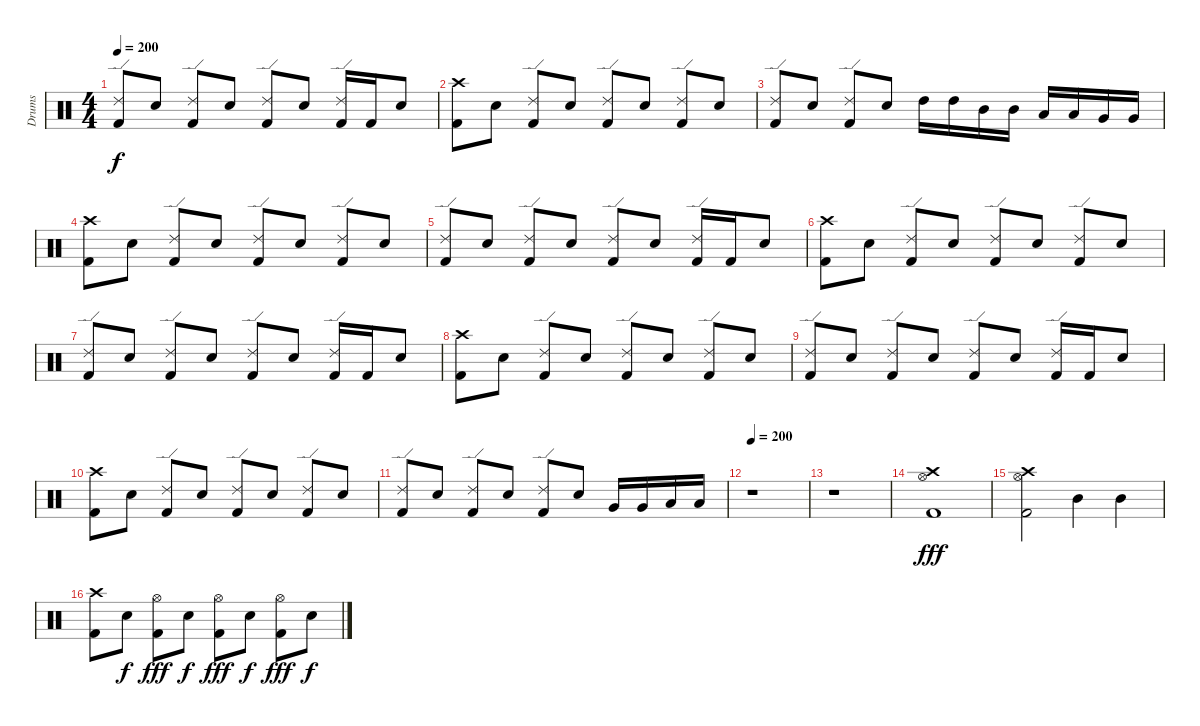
\track ("Drums" "Drums") {instrument percussion}
\staff {score}
\articulation defaults
\ts (4 4)
\tempo 200
\clef neutral
\ks c
("Ride (edge) 2" "Kick (hit) 2").8{dy f} "Electric Snare (hit)".8 ("Ride (edge) 2" "Kick (hit) 2").8 "Electric Snare (hit)".8 ("Ride (edge) 2" "Kick (hit) 2").8 "Electric Snare (hit)".8 ("Ride (edge) 2" "Kick (hit) 2").16 "Kick (hit) 2".16 "Electric Snare (hit)".8 |
("Crash high (hit)" "Kick (hit) 2").8 "Electric Snare (hit)".8 ("Ride (edge) 2" "Kick (hit) 2").8 "Electric Snare (hit)".8 ("Ride (edge) 2" "Kick (hit) 2").8 "Electric Snare (hit)".8 ("Ride (edge) 2" "Kick (hit) 2").8 "Electric Snare (hit)".8 |
("Ride (edge) 2" "Kick (hit) 2").8 "Electric Snare (hit)".8 ("Ride (edge) 2" "Kick (hit) 2").8 "Electric Snare (hit)".8 "High Tom (hit)".16 "High Tom (hit)".16 "Mid Tom (hit)".16 "Mid Tom (hit)".16 "Low Tom (hit)".16 "Low Tom (hit)".16 "Very Low Tom (hit)".16 "Very Low Tom (hit)".16 |
("Crash high (hit)" "Kick (hit) 2").8 "Electric Snare (hit)".8 ("Ride (edge) 2" "Kick (hit) 2").8 "Electric Snare (hit)".8 ("Ride (edge) 2" "Kick (hit) 2").8 "Electric Snare (hit)".8 ("Ride (edge) 2" "Kick (hit) 2").8 "Electric Snare (hit)".8 |
("Ride (edge) 2" "Kick (hit) 2").8 "Electric Snare (hit)".8 ("Ride (edge) 2" "Kick (hit) 2").8 "Electric Snare (hit)".8 ("Ride (edge) 2" "Kick (hit) 2").8 "Electric Snare (hit)".8 ("Ride (edge) 2" "Kick (hit) 2").16 "Kick (hit) 2".16 "Electric Snare (hit)".8 |
("Crash high (hit)" "Kick (hit) 2").8 "Electric Snare (hit)".8 ("Ride (edge) 2" "Kick (hit) 2").8 "Electric Snare (hit)".8 ("Ride (edge) 2" "Kick (hit) 2").8 "Electric Snare (hit)".8 ("Ride (edge) 2" "Kick (hit) 2").8 "Electric Snare (hit)".8 |
("Ride (edge) 2" "Kick (hit) 2").8 "Electric Snare (hit)".8 ("Ride (edge) 2" "Kick (hit) 2").8 "Electric Snare (hit)".8 ("Ride (edge) 2" "Kick (hit) 2").8 "Electric Snare (hit)".8 ("Ride (edge) 2" "Kick (hit) 2").16 "Kick (hit) 2".16 "Electric Snare (hit)".8 |
("Crash high (hit)" "Kick (hit) 2").8 "Electric Snare (hit)".8 ("Ride (edge) 2" "Kick (hit) 2").8 "Electric Snare (hit)".8 ("Ride (edge) 2" "Kick (hit) 2").8 "Electric Snare (hit)".8 ("Ride (edge) 2" "Kick (hit) 2").8 "Electric Snare (hit)".8 |
("Ride (edge) 2" "Kick (hit) 2").8 "Electric Snare (hit)".8 ("Ride (edge) 2" "Kick (hit) 2").8 "Electric Snare (hit)".8 ("Ride (edge) 2" "Kick (hit) 2").8 "Electric Snare (hit)".8 ("Ride (edge) 2" "Kick (hit) 2").16 "Kick (hit) 2".16 "Electric Snare (hit)".8 |
("Crash high (hit)" "Kick (hit) 2").8 "Electric Snare (hit)".8 ("Ride (edge) 2" "Kick (hit) 2").8 "Electric Snare (hit)".8 ("Ride (edge) 2" "Kick (hit) 2").8 "Electric Snare (hit)".8 ("Ride (edge) 2" "Kick (hit) 2").8 "Electric Snare (hit)".8 |
("Ride (edge) 2" "Kick (hit) 2").8 "Electric Snare (hit)".8 ("Ride (edge) 2" "Kick (hit) 2").8 "Electric Snare (hit)".8 ("Ride (edge) 2" "Kick (hit) 2").8 "Electric Snare (hit)".8 "Very Low Tom (hit)".16 "Very Low Tom (hit)".16 "Low Floor Tom (hit)".16 "Low Floor Tom (hit)".16 |
\tempo 200
r.1 |
r.1 |
("Hi-Hat (open)" "Crash high (hit)" "Kick (hit) 2").1{dy fff} |
("Hi-Hat (open)" "Crash high (hit)" "Kick (hit) 2").2 "Mid Tom (hit)".4 "Mid Tom (hit)".4 |
("Crash high (hit)" "Kick (hit) 2").8 "Electric Snare (hit)".8{dy f} ("Hi-Hat (open)" "Kick (hit) 2").8{dy fff} "Electric Snare (hit)".8{dy f} ("Hi-Hat (open)" "Kick (hit) 2").8{dy fff} "Electric Snare (hit)".8{dy f} ("Hi-Hat (open)" "Kick (hit) 2").8{dy fff} "Electric Snare (hit)".8{dy f}
